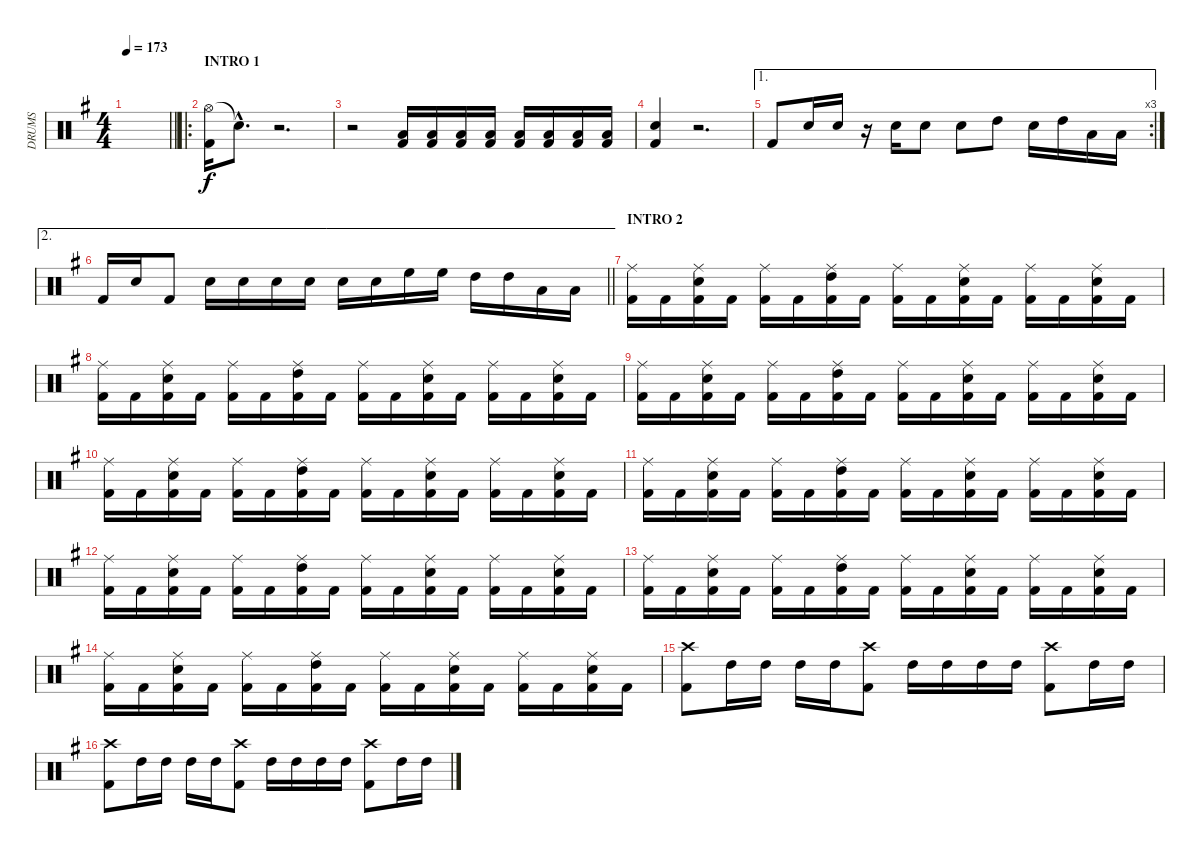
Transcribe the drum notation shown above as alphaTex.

\track ("DRUMS" "DRUMS") {instrument percussion}
\staff {score}
\articulation defaults
\ts (4 4)
\tempo 173
\clef neutral
\barLineRight lightlight
\ks g
|
\ro
\section ("" "INTRO 1")
("Hi-Hat (open)" "Kick (hit) 2").16 "Snare (hit)"{hac t}.8{d} r.2{d} |
r.2 ("Low Floor Tom (hit)" "Kick (hit) 2").16 ("Low Floor Tom (hit)" "Kick (hit) 2").16 ("Low Floor Tom (hit)" "Kick (hit) 2").16 ("Low Floor Tom (hit)" "Kick (hit) 2").16 ("Low Floor Tom (hit)" "Kick (hit) 2").16 ("Low Floor Tom (hit)" "Kick (hit) 2").16 ("Low Floor Tom (hit)" "Kick (hit) 2").16 ("Low Floor Tom (hit)" "Kick (hit) 2").16 |
("Snare (hit) 2" "Kick (hit) 2").4 r.2{d} |
\ae 1
\rc 3 "Kick (hit) 2".8 "Snare (hit) 2".16 "Snare (hit) 2".16
r.16 "Snare (hit) 2".16 "Snare (hit) 2".8 "Snare (hit) 2".8 "High Tom (hit)".8 "Snare (hit) 2".16 "High Tom (hit)".16 "Low Floor Tom (hit)".16 "Low Floor Tom (hit)".16 |
\ae 2
\barLineRight lightlight "Kick (hit) 2".16 "Snare (hit) 2".16 "Kick (hit) 2".8 "Snare (hit) 2".16 "Snare (hit) 2".16 "Snare (hit) 2".16 "Snare (hit) 2".16 "Snare (hit) 2".16 "Snare (hit) 2".16 "High Floor Tom (hit)".16 "High Floor Tom (hit)".16 "High Tom (hit)".16 "High Tom (hit)".16 "Low Floor Tom (hit)".16 "Low Floor Tom (hit)".16
|
\section ("" "INTRO 2")
("Ride (middle)" "Kick (hit) 2").16 "Kick (hit) 2".16 ("Ride (middle)" "Kick (hit) 2" "Snare (hit) 2").16 "Kick (hit) 2".16 ("Ride (middle)" "Kick (hit) 2").16 "Kick (hit) 2".16 ("Ride (middle)" "Kick (hit) 2" "High Tom (hit)").16 "Kick (hit) 2".16 ("Ride (middle)" "Kick (hit) 2").16 "Kick (hit) 2".16 ("Ride (middle)" "Kick (hit) 2" "Snare (hit) 2").16 "Kick (hit) 2".16 ("Ride (middle)" "Kick (hit) 2").16 "Kick (hit) 2".16 ("Ride (middle)" "Kick (hit) 2" "Snare (hit) 2").16 "Kick (hit) 2".16 |
("Ride (middle)" "Kick (hit) 2").16 "Kick (hit) 2".16 ("Ride (middle)" "Kick (hit) 2" "Snare (hit) 2").16 "Kick (hit) 2".16 ("Ride (middle)" "Kick (hit) 2").16 "Kick (hit) 2".16 ("Ride (middle)" "Kick (hit) 2" "High Tom (hit)").16 "Kick (hit) 2".16 ("Ride (middle)" "Kick (hit) 2").16 "Kick (hit) 2".16 ("Ride (middle)" "Kick (hit) 2" "Snare (hit) 2").16 "Kick (hit) 2".16 ("Ride (middle)" "Kick (hit) 2").16 "Kick (hit) 2".16 ("Ride (middle)" "Kick (hit) 2" "Snare (hit) 2").16 "Kick (hit) 2".16 |
("Ride (middle)" "Kick (hit) 2").16 "Kick (hit) 2".16 ("Ride (middle)" "Kick (hit) 2" "Snare (hit) 2").16 "Kick (hit) 2".16 ("Ride (middle)" "Kick (hit) 2").16 "Kick (hit) 2".16 ("Ride (middle)" "Kick (hit) 2" "High Tom (hit)").16 "Kick (hit) 2".16 ("Ride (middle)" "Kick (hit) 2").16 "Kick (hit) 2".16 ("Ride (middle)" "Kick (hit) 2" "Snare (hit) 2").16 "Kick (hit) 2".16 ("Ride (middle)" "Kick (hit) 2").16 "Kick (hit) 2".16 ("Ride (middle)" "Kick (hit) 2" "Snare (hit) 2").16 "Kick (hit) 2".16 |
("Ride (middle)" "Kick (hit) 2").16 "Kick (hit) 2".16 ("Ride (middle)" "Kick (hit) 2" "Snare (hit) 2").16 "Kick (hit) 2".16 ("Ride (middle)" "Kick (hit) 2").16 "Kick (hit) 2".16 ("Ride (middle)" "Kick (hit) 2" "High Tom (hit)").16 "Kick (hit) 2".16 ("Ride (middle)" "Kick (hit) 2").16 "Kick (hit) 2".16 ("Ride (middle)" "Kick (hit) 2" "Snare (hit) 2").16 "Kick (hit) 2".16 ("Ride (middle)" "Kick (hit) 2").16 "Kick (hit) 2".16 ("Ride (middle)" "Kick (hit) 2" "Snare (hit) 2").16 "Kick (hit) 2".16 |
("Ride (middle)" "Kick (hit) 2").16 "Kick (hit) 2".16 ("Ride (middle)" "Kick (hit) 2" "Snare (hit) 2").16 "Kick (hit) 2".16 ("Ride (middle)" "Kick (hit) 2").16 "Kick (hit) 2".16 ("Ride (middle)" "Kick (hit) 2" "High Tom (hit)").16 "Kick (hit) 2".16 ("Ride (middle)" "Kick (hit) 2").16 "Kick (hit) 2".16 ("Ride (middle)" "Kick (hit) 2" "Snare (hit) 2").16 "Kick (hit) 2".16 ("Ride (middle)" "Kick (hit) 2").16 "Kick (hit) 2".16 ("Ride (middle)" "Kick (hit) 2" "Snare (hit) 2").16 "Kick (hit) 2".16 |
("Ride (middle)" "Kick (hit) 2").16 "Kick (hit) 2".16 ("Ride (middle)" "Kick (hit) 2" "Snare (hit) 2").16 "Kick (hit) 2".16 ("Ride (middle)" "Kick (hit) 2").16 "Kick (hit) 2".16 ("Ride (middle)" "Kick (hit) 2" "High Tom (hit)").16 "Kick (hit) 2".16 ("Ride (middle)" "Kick (hit) 2").16 "Kick (hit) 2".16 ("Ride (middle)" "Kick (hit) 2" "Snare (hit) 2").16 "Kick (hit) 2".16 ("Ride (middle)" "Kick (hit) 2").16 "Kick (hit) 2".16 ("Ride (middle)" "Kick (hit) 2" "Snare (hit) 2").16 "Kick (hit) 2".16 |
("Ride (middle)" "Kick (hit) 2").16 "Kick (hit) 2".16 ("Ride (middle)" "Kick (hit) 2" "Snare (hit) 2").16 "Kick (hit) 2".16 ("Ride (middle)" "Kick (hit) 2").16 "Kick (hit) 2".16 ("Ride (middle)" "Kick (hit) 2" "High Tom (hit)").16 "Kick (hit) 2".16 ("Ride (middle)" "Kick (hit) 2").16 "Kick (hit) 2".16 ("Ride (middle)" "Kick (hit) 2" "Snare (hit) 2").16 "Kick (hit) 2".16 ("Ride (middle)" "Kick (hit) 2").16 "Kick (hit) 2".16 ("Ride (middle)" "Kick (hit) 2" "Snare (hit) 2").16 "Kick (hit) 2".16 |
("Ride (middle)" "Kick (hit) 2").16 "Kick (hit) 2".16 ("Ride (middle)" "Kick (hit) 2" "Snare (hit) 2").16 "Kick (hit) 2".16 ("Ride (middle)" "Kick (hit) 2").16 "Kick (hit) 2".16 ("Ride (middle)" "Kick (hit) 2" "High Tom (hit)").16 "Kick (hit) 2".16 ("Ride (middle)" "Kick (hit) 2").16 "Kick (hit) 2".16 ("Ride (middle)" "Kick (hit) 2" "Snare (hit) 2").16 "Kick (hit) 2".16 ("Ride (middle)" "Kick (hit) 2").16 "Kick (hit) 2".16 ("Ride (middle)" "Kick (hit) 2" "Snare (hit) 2").16 "Kick (hit) 2".16 |
("Crash high (hit)" "Kick (hit) 2").8 "High Tom (hit)".16 "High Tom (hit)".16 "High Tom (hit)".16 "High Tom (hit)".16 ("Crash high (hit)" "Kick (hit) 2").8 "High Tom (hit)".16 "High Tom (hit)".16 "High Tom (hit)".16 "High Tom (hit)".16 ("Crash high (hit)" "Kick (hit) 2").8 "High Tom (hit)".16 "High Tom (hit)".16 |
("Crash high (hit)" "Kick (hit) 2").8 "High Tom (hit)".16 "High Tom (hit)".16 "High Tom (hit)".16 "High Tom (hit)".16 ("Crash high (hit)" "Kick (hit) 2").8 "High Tom (hit)".16 "High Tom (hit)".16 "High Tom (hit)".16 "High Tom (hit)".16 ("Crash high (hit)" "Kick (hit) 2").8 "High Tom (hit)".16 "High Tom (hit)".16
